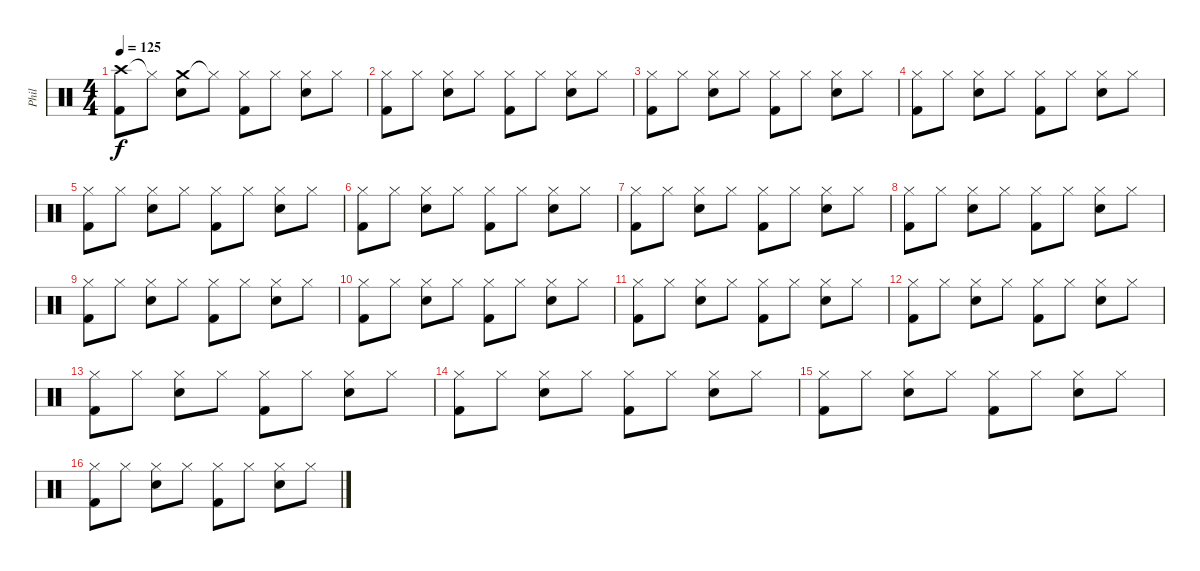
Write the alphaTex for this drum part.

\track ("Phil" "Phil") {instrument percussion}
\staff {score}
\articulation defaults
\ts (4 4)
\tempo 125
\clef neutral
\ks c
("Crash high (hit)" "Kick (hit) 2").8{dy f} "Hi-Hat (closed)"{t}.8 ("Crash medium (hit)" "Snare (hit) 2").8 "Hi-Hat (closed)"{t}.8 ("Hi-Hat (closed)" "Kick (hit) 2").8 "Hi-Hat (closed)".8 ("Hi-Hat (closed)" "Snare (hit) 2").8 "Hi-Hat (closed)".8 |
("Hi-Hat (closed)" "Kick (hit) 2").8 "Hi-Hat (closed)".8 ("Hi-Hat (closed)" "Snare (hit) 2").8 "Hi-Hat (closed)".8 ("Hi-Hat (closed)" "Kick (hit) 2").8 "Hi-Hat (closed)".8 ("Hi-Hat (closed)" "Snare (hit) 2").8 "Hi-Hat (closed)".8 |
("Hi-Hat (closed)" "Kick (hit) 2").8 "Hi-Hat (closed)".8 ("Hi-Hat (closed)" "Snare (hit) 2").8 "Hi-Hat (closed)".8 ("Hi-Hat (closed)" "Kick (hit) 2").8 "Hi-Hat (closed)".8 ("Hi-Hat (closed)" "Snare (hit) 2").8 "Hi-Hat (closed)".8 |
("Hi-Hat (closed)" "Kick (hit) 2").8 "Hi-Hat (closed)".8 ("Hi-Hat (closed)" "Snare (hit) 2").8 "Hi-Hat (closed)".8 ("Hi-Hat (closed)" "Kick (hit) 2").8 "Hi-Hat (closed)".8 ("Hi-Hat (closed)" "Snare (hit) 2").8 "Hi-Hat (closed)".8 |
("Hi-Hat (closed)" "Kick (hit) 2").8 "Hi-Hat (closed)".8 ("Hi-Hat (closed)" "Snare (hit) 2").8 "Hi-Hat (closed)".8 ("Hi-Hat (closed)" "Kick (hit) 2").8 "Hi-Hat (closed)".8 ("Hi-Hat (closed)" "Snare (hit) 2").8 "Hi-Hat (closed)".8 |
("Hi-Hat (closed)" "Kick (hit) 2").8 "Hi-Hat (closed)".8 ("Hi-Hat (closed)" "Snare (hit) 2").8 "Hi-Hat (closed)".8 ("Hi-Hat (closed)" "Kick (hit) 2").8 "Hi-Hat (closed)".8 ("Hi-Hat (closed)" "Snare (hit) 2").8 "Hi-Hat (closed)".8 |
("Hi-Hat (closed)" "Kick (hit) 2").8 "Hi-Hat (closed)".8 ("Hi-Hat (closed)" "Snare (hit) 2").8 "Hi-Hat (closed)".8 ("Hi-Hat (closed)" "Kick (hit) 2").8 "Hi-Hat (closed)".8 ("Hi-Hat (closed)" "Snare (hit) 2").8 "Hi-Hat (closed)".8 |
("Hi-Hat (closed)" "Kick (hit) 2").8 "Hi-Hat (closed)".8 ("Hi-Hat (closed)" "Snare (hit) 2").8 "Hi-Hat (closed)".8 ("Hi-Hat (closed)" "Kick (hit) 2").8 "Hi-Hat (closed)".8 ("Hi-Hat (closed)" "Snare (hit) 2").8 "Hi-Hat (closed)".8 |
("Hi-Hat (closed)" "Kick (hit) 2").8 "Hi-Hat (closed)".8 ("Hi-Hat (closed)" "Snare (hit) 2").8 "Hi-Hat (closed)".8 ("Hi-Hat (closed)" "Kick (hit) 2").8 "Hi-Hat (closed)".8 ("Hi-Hat (closed)" "Snare (hit) 2").8 "Hi-Hat (closed)".8 |
("Hi-Hat (closed)" "Kick (hit) 2").8 "Hi-Hat (closed)".8 ("Hi-Hat (closed)" "Snare (hit) 2").8 "Hi-Hat (closed)".8 ("Hi-Hat (closed)" "Kick (hit) 2").8 "Hi-Hat (closed)".8 ("Hi-Hat (closed)" "Snare (hit) 2").8 "Hi-Hat (closed)".8 |
("Hi-Hat (closed)" "Kick (hit) 2").8 "Hi-Hat (closed)".8 ("Hi-Hat (closed)" "Snare (hit) 2").8 "Hi-Hat (closed)".8 ("Hi-Hat (closed)" "Kick (hit) 2").8 "Hi-Hat (closed)".8 ("Hi-Hat (closed)" "Snare (hit) 2").8 "Hi-Hat (closed)".8 |
("Hi-Hat (closed)" "Kick (hit) 2").8 "Hi-Hat (closed)".8 ("Hi-Hat (closed)" "Snare (hit) 2").8 "Hi-Hat (closed)".8 ("Hi-Hat (closed)" "Kick (hit) 2").8 "Hi-Hat (closed)".8 ("Hi-Hat (closed)" "Snare (hit) 2").8 "Hi-Hat (closed)".8 |
("Hi-Hat (closed)" "Kick (hit) 2").8 "Hi-Hat (closed)".8 ("Hi-Hat (closed)" "Snare (hit) 2").8 "Hi-Hat (closed)".8 ("Hi-Hat (closed)" "Kick (hit) 2").8 "Hi-Hat (closed)".8 ("Hi-Hat (closed)" "Snare (hit) 2").8 "Hi-Hat (closed)".8 |
("Hi-Hat (closed)" "Kick (hit) 2").8 "Hi-Hat (closed)".8 ("Hi-Hat (closed)" "Snare (hit) 2").8 "Hi-Hat (closed)".8 ("Hi-Hat (closed)" "Kick (hit) 2").8 "Hi-Hat (closed)".8 ("Hi-Hat (closed)" "Snare (hit) 2").8 "Hi-Hat (closed)".8 |
("Hi-Hat (closed)" "Kick (hit) 2").8 "Hi-Hat (closed)".8 ("Hi-Hat (closed)" "Snare (hit) 2").8 "Hi-Hat (closed)".8 ("Hi-Hat (closed)" "Kick (hit) 2").8 "Hi-Hat (closed)".8 ("Hi-Hat (closed)" "Snare (hit) 2").8 "Hi-Hat (closed)".8 |
("Hi-Hat (closed)" "Kick (hit) 2").8 "Hi-Hat (closed)".8 ("Hi-Hat (closed)" "Snare (hit) 2").8 "Hi-Hat (closed)".8 ("Hi-Hat (closed)" "Kick (hit) 2").8 "Hi-Hat (closed)".8 ("Hi-Hat (closed)" "Snare (hit) 2").8 "Hi-Hat (closed)".8
